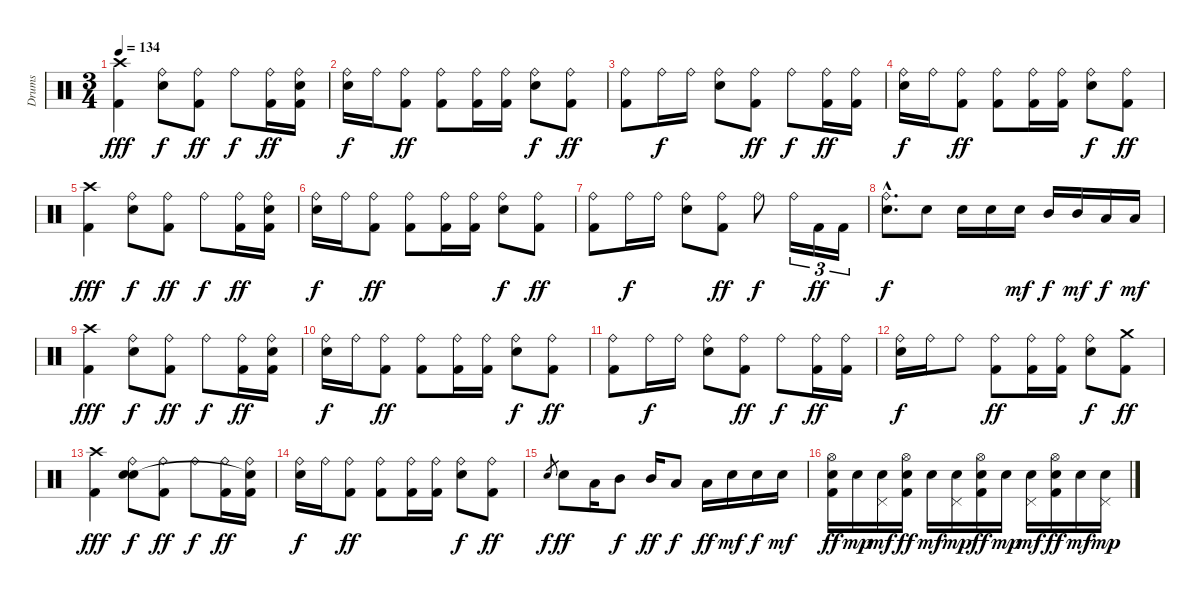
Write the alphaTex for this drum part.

\track ("Drums" "Drums") {instrument percussion}
\staff {score}
\articulation defaults
\ts (3 4)
\tempo 134
\clef neutral
\ks c
("Kick (hit) 2" "Crash high (hit)").4{dy fff} ("Ride (bell)" "Snare (hit) 2").8{dy f} ("Ride (bell)" "Kick (hit) 2").8{dy ff} "Ride (bell)".8{dy f} ("Ride (bell)" "Kick (hit) 2").16{dy ff} ("Ride (bell)" "Kick (hit) 2" "Snare (hit)").16 |
("Ride (bell)" "Snare (hit) 2").16{dy f} "Ride (bell)".16 ("Ride (bell)" "Kick (hit) 2").8{dy ff} ("Ride (bell)" "Kick (hit) 2").8 ("Ride (bell)" "Kick (hit) 2").16 ("Ride (bell)" "Kick (hit) 2").16 ("Ride (bell)" "Snare (hit) 2").8{dy f} ("Ride (bell)" "Kick (hit) 2").8{dy ff} |
("Ride (bell)" "Kick (hit) 2").8 "Ride (bell)".16{dy f} "Ride (bell)".16 ("Ride (bell)" "Snare (hit) 2").8 ("Ride (bell)" "Kick (hit) 2").8{dy ff} "Ride (bell)".8{dy f} ("Ride (bell)" "Kick (hit) 2").16{dy ff} ("Ride (bell)" "Kick (hit) 2").16 |
("Ride (bell)" "Snare (hit) 2").16{dy f} "Ride (bell)".16 ("Ride (bell)" "Kick (hit) 2").8{dy ff} ("Ride (bell)" "Kick (hit) 2").8 ("Ride (bell)" "Kick (hit) 2").16 ("Ride (bell)" "Kick (hit) 2").16 ("Ride (bell)" "Snare (hit) 2").8{dy f} ("Ride (bell)" "Kick (hit) 2").8{dy ff} |
("Kick (hit) 2" "Crash high (hit)").4{dy fff} ("Ride (bell)" "Snare (hit) 2").8{dy f} ("Ride (bell)" "Kick (hit) 2").8{dy ff} "Ride (bell)".8{dy f} ("Ride (bell)" "Kick (hit) 2").16{dy ff} ("Ride (bell)" "Kick (hit) 2" "Snare (hit)").16 |
("Ride (bell)" "Snare (hit) 2").16{dy f} "Ride (bell)".16 ("Ride (bell)" "Kick (hit) 2").8{dy ff} ("Ride (bell)" "Kick (hit) 2").8 ("Ride (bell)" "Kick (hit) 2").16 ("Ride (bell)" "Kick (hit) 2").16 ("Ride (bell)" "Snare (hit) 2").8{dy f} ("Ride (bell)" "Kick (hit) 2").8{dy ff} |
("Ride (bell)" "Kick (hit) 2").8 "Ride (bell)".16{dy f} "Ride (bell)".16 ("Ride (bell)" "Snare (hit) 2").8 ("Ride (bell)" "Kick (hit) 2").8{dy ff} "Ride (bell)".8{dy f} "Ride (bell)".16{tu (3 2)} "Kick (hit) 2".16{tu (3 2) dy ff} "Kick (hit) 2".16{tu (3 2)} |
("Ride (bell)"{hac} "Snare (hit) 2"{hac}).8{d dy f} "Snare (hit) 2".8 "Snare (hit) 2".16 "Snare (hit) 2".16 "Snare (hit) 2".16{dy mf} "Mid Tom (hit)".16{dy f} "Mid Tom (hit)".16{dy mf} "Low Tom (hit)".16{dy f} "Low Tom (hit)".16{dy mf} |
("Kick (hit) 2" "Crash high (hit)").4{dy fff} ("Ride (bell)" "Snare (hit) 2").8{dy f} ("Ride (bell)" "Kick (hit) 2").8{dy ff} "Ride (bell)".8{dy f} ("Ride (bell)" "Kick (hit) 2").16{dy ff} ("Ride (bell)" "Kick (hit) 2" "Snare (hit)").16 |
("Ride (bell)" "Snare (hit) 2").16{dy f} "Ride (bell)".16 ("Ride (bell)" "Kick (hit) 2").8{dy ff} ("Ride (bell)" "Kick (hit) 2").8 ("Ride (bell)" "Kick (hit) 2").16 ("Ride (bell)" "Kick (hit) 2").16 ("Ride (bell)" "Snare (hit) 2").8{dy f} ("Ride (bell)" "Kick (hit) 2").8{dy ff} |
("Ride (bell)" "Kick (hit) 2").8 "Ride (bell)".16{dy f} "Ride (bell)".16 ("Ride (bell)" "Snare (hit) 2").8 ("Ride (bell)" "Kick (hit) 2").8{dy ff} "Ride (bell)".8{dy f} ("Ride (bell)" "Kick (hit) 2").16{dy ff} ("Ride (bell)" "Kick (hit) 2").16 |
("Ride (bell)" "Snare (hit) 2").16{dy f} "Ride (bell)".16 "Ride (bell)".8 ("Ride (bell)" "Kick (hit) 2").8{dy ff} ("Ride (bell)" "Kick (hit) 2").16 ("Ride (bell)" "Kick (hit) 2").16 ("Ride (bell)" "Snare (hit) 2").8{dy f} ("Crash medium (hit)" "Kick (hit) 2").8{dy ff} |
("Kick (hit) 2" "Crash high (hit)").4{dy fff} ("Ride (bell)" "Snare (hit) 2" "Snare (hit)").8{dy f} ("Ride (bell)" "Kick (hit) 2").8{dy ff} "Ride (bell)".8{dy f} ("Ride (bell)" "Kick (hit) 2").16{dy ff} ("Ride (bell)" "Kick (hit) 2" "Snare (hit)"{t}).16 |
("Ride (bell)" "Snare (hit) 2").16{dy f} "Ride (bell)".16 ("Ride (bell)" "Kick (hit) 2").8{dy ff} ("Ride (bell)" "Kick (hit) 2").8 ("Ride (bell)" "Kick (hit) 2").16 ("Ride (bell)" "Kick (hit) 2").16 ("Ride (bell)" "Snare (hit) 2").8{dy f} ("Ride (bell)" "Kick (hit) 2").8{dy ff} |
"Snare (hit) 2".8{gr dy f} "Snare (hit) 2".8{dy ff} "Low Tom (hit)".16 "Mid Tom (hit)".8{dy f} "Mid Tom (hit)".16{dy ff} "Low Tom (hit)".8{dy f} "Low Tom (hit)".16{dy ff} "Snare (hit) 2".16{dy mf} "Snare (hit) 2".16{dy f} "Snare (hit) 2".16{dy mf} |
("Hi-Hat (open)" "Snare (hit) 2" "Kick (hit) 2").16{dy ff} "Snare (hit) 2".16{dy mp} ("Pedal Hi-Hat (hit)" "Snare (hit) 2").16{dy mf} ("Hi-Hat (open)" "Snare (hit) 2" "Kick (hit) 2").16{dy ff} "Snare (hit) 2".16{dy mf} ("Pedal Hi-Hat (hit)" "Snare (hit) 2").16{dy mp} ("Hi-Hat (open)" "Snare (hit) 2" "Kick (hit) 2").16{dy ff} "Snare (hit) 2".16{dy mp} ("Pedal Hi-Hat (hit)" "Snare (hit) 2").16{dy mf} ("Hi-Hat (open)" "Snare (hit) 2" "Kick (hit) 2").16{dy ff} "Snare (hit) 2".16{dy mf} ("Pedal Hi-Hat (hit)" "Snare (hit) 2").16{dy mp}
